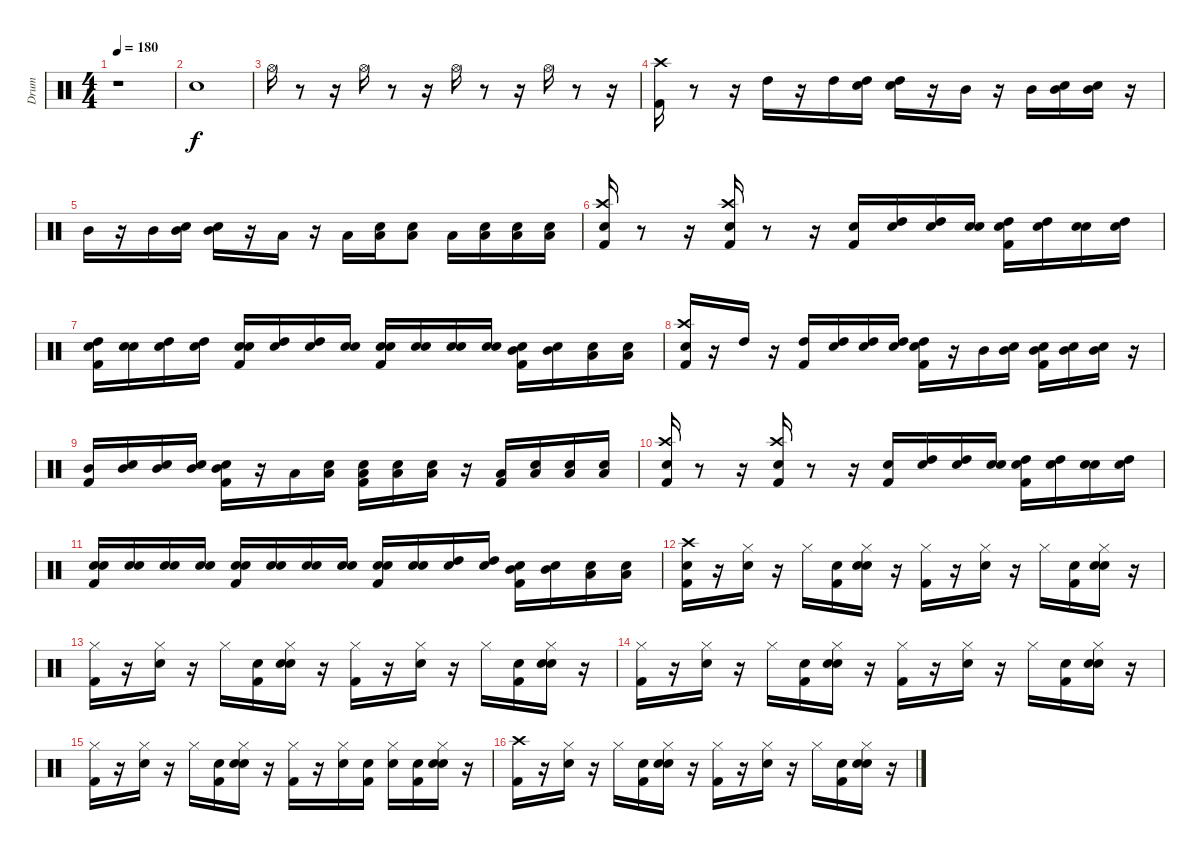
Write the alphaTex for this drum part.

\track ("Drum" "Drum") {instrument percussion}
\staff {score}
\articulation defaults
\ts (4 4)
\tempo 180
\clef neutral
\ks c
r.1{dy f} |
"Snare (hit)".1 |
"Hi-Hat (open)".16 r.8 r.16 "Hi-Hat (open)".16 r.8 r.16 "Hi-Hat (open)".16 r.8 r.16 "Hi-Hat (open)".16 r.8 r.16 |
("Crash high (hit)" "Kick (hit) 2").16 r.8 r.16 "High Tom (hit)".16 r.16 "High Tom (hit)".16 ("Snare (hit)" "High Tom (hit)").16 ("Snare (hit)" "High Tom (hit)").16 r.16 "Mid Tom (hit)".16 r.16 "Mid Tom (hit)".16 ("Snare (hit)" "Mid Tom (hit)").16 ("Snare (hit)" "Mid Tom (hit)").16 r.16 |
"Mid Tom (hit)".16 r.16 "Mid Tom (hit)".16 ("Snare (hit)" "Mid Tom (hit)").16 ("Snare (hit)" "Mid Tom (hit)").16 r.16 "Low Tom (hit)".16 r.16 "Low Tom (hit)".16 ("Snare (hit)" "Low Tom (hit)").16 ("Snare (hit)" "Low Tom (hit)").8 "Low Tom (hit)".16 ("Snare (hit)" "Low Tom (hit)").16 ("Snare (hit)" "Low Tom (hit)").16 ("Snare (hit)" "Low Tom (hit)").16 |
("Snare (hit)" "Crash high (hit)" "Kick (hit) 2").16 r.8 r.16 ("Snare (hit) 2" "Kick (hit) 2" "Crash high (hit)").16 r.8 r.16 ("Snare (hit) 2" "Kick (hit) 2").16 ("Snare (hit)" "High Tom (hit)").16 ("Snare (hit)" "High Tom (hit)").16 ("Snare (hit)" "Snare (hit) 2").16 ("Snare (hit)" "Kick (hit) 2" "High Tom (hit)").16 ("Snare (hit)" "High Tom (hit)").16 ("Snare (hit)" "Snare (hit) 2").16 ("Snare (hit)" "High Tom (hit)").16 |
("Snare (hit)" "High Tom (hit)" "Kick (hit) 2").16 ("Snare (hit)" "Snare (hit) 2").16 ("Snare (hit)" "High Tom (hit)").16 ("Snare (hit)" "High Tom (hit)").16 ("Snare (hit)" "Snare (hit) 2" "Kick (hit) 2").16 ("Snare (hit)" "High Tom (hit)").16 ("Snare (hit)" "High Tom (hit)").16 ("Snare (hit)" "Snare (hit) 2").16 ("Snare (hit)" "Snare (hit) 2" "Kick (hit) 2").16 ("Snare (hit)" "Snare (hit) 2").16 ("Snare (hit)" "Snare (hit) 2").16 ("Snare (hit)" "Snare (hit) 2").16 ("Snare (hit)" "Kick (hit) 2" "Mid Tom (hit)").16 ("Snare (hit)" "Mid Tom (hit)").16 ("Snare (hit)" "Low Floor Tom (hit)").16 ("Snare (hit)" "Low Floor Tom (hit)").16 |
("Snare (hit)" "Crash high (hit)" "Kick (hit) 2").16 r.16 "High Tom (hit)".16 r.16 ("High Tom (hit)" "Kick (hit) 2").16 ("Snare (hit)" "High Tom (hit)").16 ("Snare (hit)" "High Tom (hit)").16 ("Snare (hit)" "High Tom (hit)").16 ("Snare (hit)" "High Tom (hit)" "Kick (hit) 2").16 r.16 "Mid Tom (hit)".16 ("Snare (hit)" "Mid Tom (hit)").16 ("Snare (hit)" "Mid Tom (hit)" "Kick (hit) 2").16 ("Snare (hit)" "Mid Tom (hit)").16 ("Snare (hit)" "Mid Tom (hit)").16 r.16 |
("Mid Tom (hit)" "Kick (hit) 2").16 ("Snare (hit)" "Mid Tom (hit)").16 ("Snare (hit)" "Mid Tom (hit)").16 ("Snare (hit)" "Mid Tom (hit)").16 ("Snare (hit)" "Mid Tom (hit)" "Kick (hit) 2").16 r.16 "Low Floor Tom (hit)".16 ("Snare (hit)" "Low Floor Tom (hit)").16 ("Snare (hit)" "Low Floor Tom (hit)" "Kick (hit) 2").16 ("Snare (hit)" "Low Floor Tom (hit)").16 ("Snare (hit)" "Low Floor Tom (hit)").16 r.16 ("Low Floor Tom (hit)" "Kick (hit) 2").16 ("Snare (hit)" "Low Floor Tom (hit)").16 ("Snare (hit)" "Low Floor Tom (hit)").16 ("Snare (hit)" "Low Floor Tom (hit)").16 |
("Snare (hit)" "Crash high (hit)" "Kick (hit) 2").16 r.8 r.16 ("Kick (hit) 2" "Snare (hit) 2" "Crash high (hit)").16 r.8 r.16 ("Snare (hit) 2" "Kick (hit) 2").16 ("Snare (hit)" "High Tom (hit)").16 ("Snare (hit)" "High Tom (hit)").16 ("Snare (hit)" "Snare (hit) 2").16 ("Snare (hit)" "High Tom (hit)" "Kick (hit) 2").16 ("Snare (hit)" "High Tom (hit)").16 ("Snare (hit)" "Snare (hit) 2").16 ("Snare (hit)" "High Tom (hit)").16 |
("Snare (hit)" "Snare (hit) 2" "Kick (hit) 2").16 ("Snare (hit)" "Snare (hit) 2").16 ("Snare (hit)" "Snare (hit) 2").16 ("Snare (hit)" "Snare (hit) 2").16 ("Snare (hit)" "Snare (hit) 2" "Kick (hit) 2").16 ("Snare (hit)" "Snare (hit) 2").16 ("Snare (hit)" "Snare (hit) 2").16 ("Snare (hit)" "Snare (hit) 2").16 ("Snare (hit)" "Snare (hit) 2" "Kick (hit) 2").16 ("Snare (hit)" "Snare (hit) 2").16 ("Snare (hit)" "High Tom (hit)").16 ("Snare (hit)" "High Tom (hit)").16 ("Snare (hit)" "Mid Tom (hit)" "Kick (hit) 2").16 ("Snare (hit)" "Mid Tom (hit)").16 ("Snare (hit)" "Low Floor Tom (hit)").16 ("Snare (hit)" "Low Floor Tom (hit)").16 |
("Snare (hit)" "Crash high (hit)" "Kick (hit) 2").16 r.16 ("Snare (hit) 2" "Hi-Hat (closed)").16 r.16 "Hi-Hat (closed)".16 ("Snare (hit)" "Kick (hit) 2").16 ("Snare (hit)" "Snare (hit) 2" "Hi-Hat (closed)").16 r.16 ("Kick (hit) 2" "Hi-Hat (closed)").16 r.16 ("Snare (hit) 2" "Hi-Hat (closed)").16 r.16 "Hi-Hat (closed)".16 ("Snare (hit)" "Kick (hit) 2").16 ("Snare (hit)" "Snare (hit) 2" "Hi-Hat (closed)").16 r.16 |
("Kick (hit) 2" "Hi-Hat (closed)").16 r.16 ("Snare (hit) 2" "Hi-Hat (closed)").16 r.16 "Hi-Hat (closed)".16 ("Snare (hit)" "Kick (hit) 2").16 ("Snare (hit)" "Snare (hit) 2" "Hi-Hat (closed)").16 r.16 ("Kick (hit) 2" "Hi-Hat (closed)").16 r.16 ("Snare (hit) 2" "Hi-Hat (closed)").16 r.16 "Hi-Hat (closed)".16 ("Snare (hit)" "Kick (hit) 2").16 ("Snare (hit)" "Snare (hit) 2" "Hi-Hat (closed)").16 r.16 |
("Kick (hit) 2" "Hi-Hat (closed)").16 r.16 ("Snare (hit) 2" "Hi-Hat (closed)").16 r.16 "Hi-Hat (closed)".16 ("Snare (hit)" "Kick (hit) 2").16 ("Snare (hit)" "Snare (hit) 2" "Hi-Hat (closed)").16 r.16 ("Kick (hit) 2" "Hi-Hat (closed)").16 r.16 ("Snare (hit) 2" "Hi-Hat (closed)").16 r.16 "Hi-Hat (closed)".16 ("Snare (hit)" "Kick (hit) 2").16 ("Snare (hit)" "Snare (hit) 2" "Hi-Hat (closed)").16 r.16 |
("Kick (hit) 2" "Hi-Hat (closed)").16 r.16 ("Snare (hit) 2" "Hi-Hat (closed)").16 r.16 "Hi-Hat (closed)".16 ("Snare (hit)" "Kick (hit) 2").16 ("Snare (hit)" "Snare (hit) 2" "Hi-Hat (closed)").16 r.16 ("Kick (hit) 2" "Hi-Hat (closed)").16 r.16 ("Snare (hit) 2" "Hi-Hat (closed)").16 ("Snare (hit)" "Kick (hit) 2").16 ("Snare (hit)" "Hi-Hat (closed)").16 ("Snare (hit)" "Kick (hit) 2").16 ("Snare (hit)" "Snare (hit) 2" "Hi-Hat (closed)").16 r.16 |
("Kick (hit) 2" "Crash high (hit)").16 r.16 ("Snare (hit) 2" "Hi-Hat (closed)").16 r.16 "Hi-Hat (closed)".16 ("Snare (hit)" "Kick (hit) 2").16 ("Snare (hit)" "Snare (hit) 2" "Hi-Hat (closed)").16 r.16 ("Kick (hit) 2" "Hi-Hat (closed)").16 r.16 ("Snare (hit) 2" "Hi-Hat (closed)").16 r.16 "Hi-Hat (closed)".16 ("Snare (hit)" "Kick (hit) 2").16 ("Snare (hit)" "Snare (hit) 2" "Hi-Hat (closed)").16 r.16
